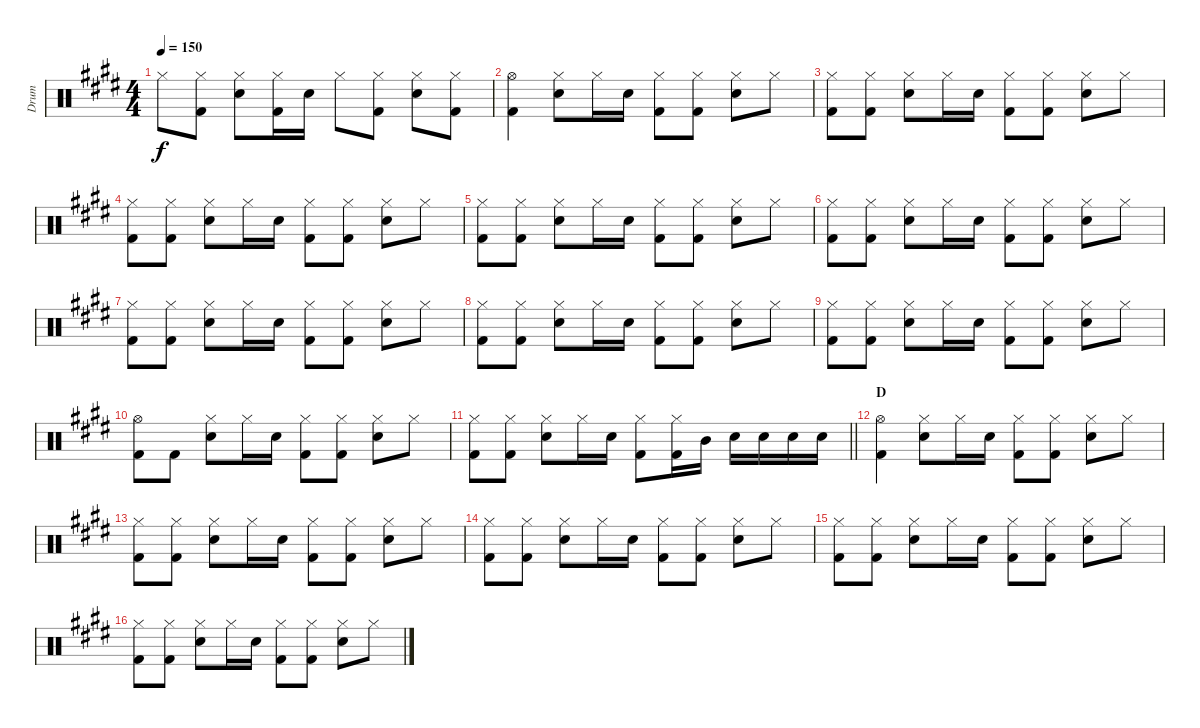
\track ("Drum" "Drum") {instrument percussion}
\staff {score}
\articulation defaults
\ts (4 4)
\tempo 150
\clef neutral
\ks c#minor "Hi-Hat (closed)".8{dy f}
("Hi-Hat (closed)" "Kick (hit) 2").8 ("Hi-Hat (closed)" "Snare (hit) 2").8 ("Hi-Hat (closed)" "Kick (hit) 2").16 "Snare (hit) 2".16 "Hi-Hat (closed)".8 ("Hi-Hat (closed)" "Kick (hit) 2").8 ("Hi-Hat (closed)" "Snare (hit) 2").8 ("Hi-Hat (closed)" "Kick (hit) 2").8 |
("Hi-Hat (open)" "Kick (hit) 2").4 ("Hi-Hat (closed)" "Snare (hit) 2").8 "Hi-Hat (closed)".16 "Snare (hit) 2".16 ("Hi-Hat (closed)" "Kick (hit) 2").8 ("Hi-Hat (closed)" "Kick (hit) 2").8 ("Hi-Hat (closed)" "Snare (hit) 2").8 "Hi-Hat (closed)".8 |
("Hi-Hat (closed)" "Kick (hit) 2").8 ("Hi-Hat (closed)" "Kick (hit) 2").8 ("Hi-Hat (closed)" "Snare (hit) 2").8 "Hi-Hat (closed)".16 "Snare (hit) 2".16 ("Hi-Hat (closed)" "Kick (hit) 2").8 ("Hi-Hat (closed)" "Kick (hit) 2").8 ("Hi-Hat (closed)" "Snare (hit) 2").8 "Hi-Hat (closed)".8 |
("Hi-Hat (closed)" "Kick (hit) 2").8 ("Hi-Hat (closed)" "Kick (hit) 2").8 ("Hi-Hat (closed)" "Snare (hit) 2").8 "Hi-Hat (closed)".16 "Snare (hit) 2".16 ("Hi-Hat (closed)" "Kick (hit) 2").8 ("Hi-Hat (closed)" "Kick (hit) 2").8 ("Hi-Hat (closed)" "Snare (hit) 2").8 "Hi-Hat (closed)".8 |
("Hi-Hat (closed)" "Kick (hit) 2").8 ("Hi-Hat (closed)" "Kick (hit) 2").8 ("Hi-Hat (closed)" "Snare (hit) 2").8 "Hi-Hat (closed)".16 "Snare (hit) 2".16 ("Hi-Hat (closed)" "Kick (hit) 2").8 ("Hi-Hat (closed)" "Kick (hit) 2").8 ("Hi-Hat (closed)" "Snare (hit) 2").8 "Hi-Hat (closed)".8 |
("Hi-Hat (closed)" "Kick (hit) 2").8 ("Hi-Hat (closed)" "Kick (hit) 2").8 ("Hi-Hat (closed)" "Snare (hit) 2").8 "Hi-Hat (closed)".16 "Snare (hit) 2".16 ("Hi-Hat (closed)" "Kick (hit) 2").8 ("Hi-Hat (closed)" "Kick (hit) 2").8 ("Hi-Hat (closed)" "Snare (hit) 2").8 "Hi-Hat (closed)".8 |
("Hi-Hat (closed)" "Kick (hit) 2").8 ("Hi-Hat (closed)" "Kick (hit) 2").8 ("Hi-Hat (closed)" "Snare (hit) 2").8 "Hi-Hat (closed)".16 "Snare (hit) 2".16 ("Hi-Hat (closed)" "Kick (hit) 2").8 ("Hi-Hat (closed)" "Kick (hit) 2").8 ("Hi-Hat (closed)" "Snare (hit) 2").8 "Hi-Hat (closed)".8 |
("Hi-Hat (closed)" "Kick (hit) 2").8 ("Hi-Hat (closed)" "Kick (hit) 2").8 ("Hi-Hat (closed)" "Snare (hit) 2").8 "Hi-Hat (closed)".16 "Snare (hit) 2".16 ("Hi-Hat (closed)" "Kick (hit) 2").8 ("Hi-Hat (closed)" "Kick (hit) 2").8 ("Hi-Hat (closed)" "Snare (hit) 2").8 "Hi-Hat (closed)".8 |
("Hi-Hat (closed)" "Kick (hit) 2").8 ("Hi-Hat (closed)" "Kick (hit) 2").8 ("Hi-Hat (closed)" "Snare (hit) 2").8 "Hi-Hat (closed)".16 "Snare (hit) 2".16 ("Hi-Hat (closed)" "Kick (hit) 2").8 ("Hi-Hat (closed)" "Kick (hit) 2").8 ("Hi-Hat (closed)" "Snare (hit) 2").8 "Hi-Hat (closed)".8 |
("Hi-Hat (open)" "Kick (hit) 2").8 "Kick (hit) 2".8 ("Hi-Hat (closed)" "Snare (hit) 2").8 "Hi-Hat (closed)".16 "Snare (hit) 2".16 ("Hi-Hat (closed)" "Kick (hit) 2").8 ("Hi-Hat (closed)" "Kick (hit) 2").8 ("Hi-Hat (closed)" "Snare (hit) 2").8 "Hi-Hat (closed)".8 |
\barLineRight lightlight
("Hi-Hat (closed)" "Kick (hit) 2").8 ("Hi-Hat (closed)" "Kick (hit) 2").8 ("Hi-Hat (closed)" "Snare (hit) 2").8 "Hi-Hat (closed)".16 "Snare (hit) 2".16 ("Hi-Hat (closed)" "Kick (hit) 2").8 ("Hi-Hat (closed)" "Kick (hit) 2").16 "Mid Tom (hit)".16 "Snare (hit) 2".16 "Snare (hit) 2".16 "Snare (hit) 2".16 "Snare (hit) 2".16 |
\section ("" "D")
("Hi-Hat (open)" "Kick (hit) 2").4 ("Hi-Hat (closed)" "Snare (hit) 2").8 "Hi-Hat (closed)".16 "Snare (hit) 2".16 ("Hi-Hat (closed)" "Kick (hit) 2").8 ("Hi-Hat (closed)" "Kick (hit) 2").8 ("Hi-Hat (closed)" "Snare (hit) 2").8 "Hi-Hat (closed)".8 |
("Hi-Hat (closed)" "Kick (hit) 2").8 ("Hi-Hat (closed)" "Kick (hit) 2").8 ("Hi-Hat (closed)" "Snare (hit) 2").8 "Hi-Hat (closed)".16 "Snare (hit) 2".16 ("Hi-Hat (closed)" "Kick (hit) 2").8 ("Hi-Hat (closed)" "Kick (hit) 2").8 ("Hi-Hat (closed)" "Snare (hit) 2").8 "Hi-Hat (closed)".8 |
("Hi-Hat (closed)" "Kick (hit) 2").8 ("Hi-Hat (closed)" "Kick (hit) 2").8 ("Hi-Hat (closed)" "Snare (hit) 2").8 "Hi-Hat (closed)".16 "Snare (hit) 2".16 ("Hi-Hat (closed)" "Kick (hit) 2").8 ("Hi-Hat (closed)" "Kick (hit) 2").8 ("Hi-Hat (closed)" "Snare (hit) 2").8 "Hi-Hat (closed)".8 |
("Hi-Hat (closed)" "Kick (hit) 2").8 ("Hi-Hat (closed)" "Kick (hit) 2").8 ("Hi-Hat (closed)" "Snare (hit) 2").8 "Hi-Hat (closed)".16 "Snare (hit) 2".16 ("Hi-Hat (closed)" "Kick (hit) 2").8 ("Hi-Hat (closed)" "Kick (hit) 2").8 ("Hi-Hat (closed)" "Snare (hit) 2").8 "Hi-Hat (closed)".8 |
("Hi-Hat (closed)" "Kick (hit) 2").8 ("Hi-Hat (closed)" "Kick (hit) 2").8 ("Hi-Hat (closed)" "Snare (hit) 2").8 "Hi-Hat (closed)".16 "Snare (hit) 2".16 ("Hi-Hat (closed)" "Kick (hit) 2").8 ("Hi-Hat (closed)" "Kick (hit) 2").8 ("Hi-Hat (closed)" "Snare (hit) 2").8 "Hi-Hat (closed)".8
